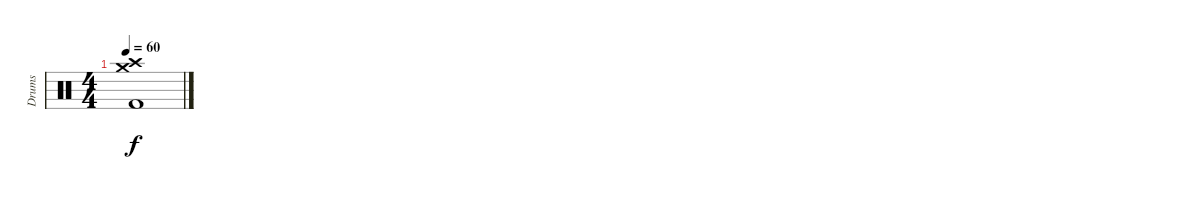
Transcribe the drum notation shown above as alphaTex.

\track ("Drums" "Drums") {instrument percussion}
\staff {score}
\articulation defaults
\ts (4 4)
\tempo 60
\clef neutral
\ks c
("Crash medium (hit)" "Crash high (hit)" "Kick (hit) 2").1{dy f}
